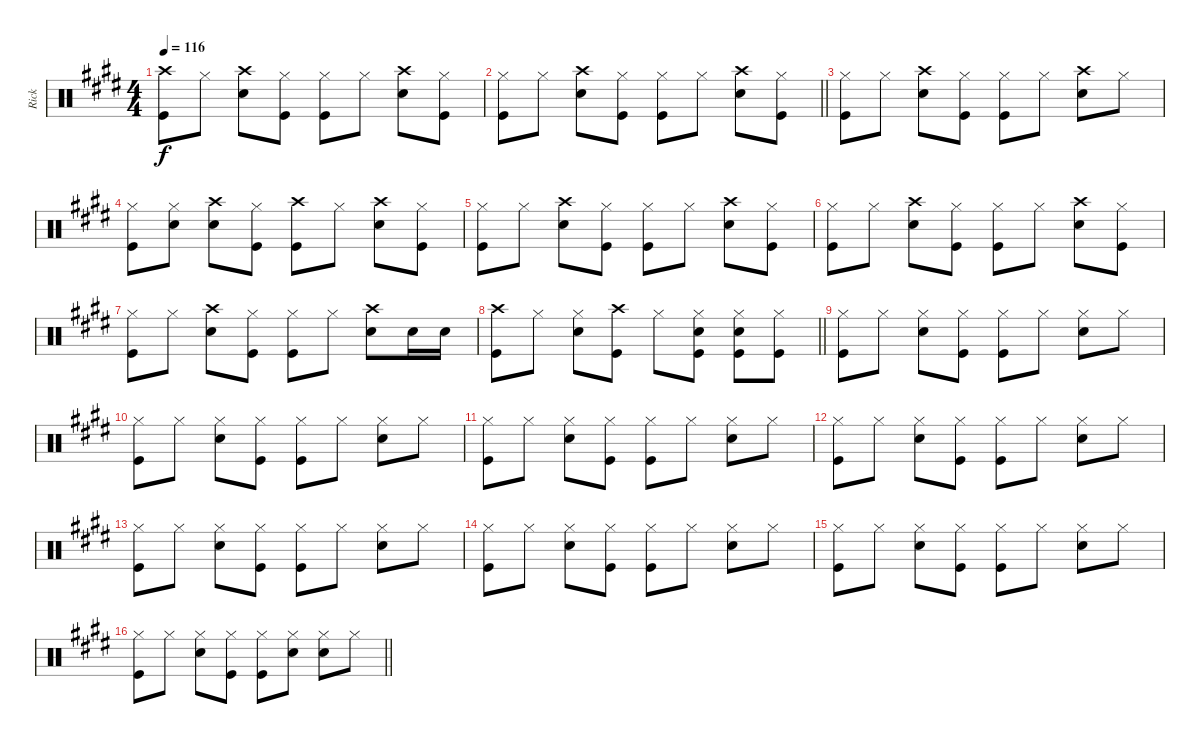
\track ("Rick" "Rick") {instrument percussion}
\staff {score}
\articulation defaults
\ts (4 4)
\tempo 116
\clef neutral
\ks e
("Crash high (hit)" "Kick (hit)").8{dy f} "Hi-Hat (closed)".8 ("Crash high (hit)" "Snare (hit) 2").8 ("Hi-Hat (closed)" "Kick (hit)").8 ("Hi-Hat (closed)" "Kick (hit)").8 "Hi-Hat (closed)".8 ("Crash high (hit)" "Snare (hit) 2").8 ("Hi-Hat (closed)" "Kick (hit)").8 |
\barLineRight lightlight
("Hi-Hat (closed)" "Kick (hit)").8 "Hi-Hat (closed)".8 ("Crash high (hit)" "Snare (hit) 2").8 ("Hi-Hat (closed)" "Kick (hit)").8 ("Hi-Hat (closed)" "Kick (hit)").8 "Hi-Hat (closed)".8 ("Crash high (hit)" "Snare (hit) 2").8 ("Hi-Hat (closed)" "Kick (hit)").8 |
("Hi-Hat (closed)" "Kick (hit)").8 "Hi-Hat (closed)".8 ("Crash high (hit)" "Snare (hit) 2").8 ("Hi-Hat (closed)" "Kick (hit)").8 ("Hi-Hat (closed)" "Kick (hit)").8 "Hi-Hat (closed)".8 ("Crash high (hit)" "Snare (hit) 2").8 "Hi-Hat (closed)".8 |
("Hi-Hat (closed)" "Kick (hit)").8 ("Hi-Hat (closed)" "Snare (hit) 2").8 ("Crash high (hit)" "Snare (hit) 2").8 ("Hi-Hat (closed)" "Kick (hit)").8 ("Crash high (hit)" "Kick (hit)").8 "Hi-Hat (closed)".8 ("Crash high (hit)" "Snare (hit) 2").8 ("Hi-Hat (closed)" "Kick (hit)").8 |
("Hi-Hat (closed)" "Kick (hit)").8 "Hi-Hat (closed)".8 ("Crash high (hit)" "Snare (hit) 2").8 ("Hi-Hat (closed)" "Kick (hit)").8 ("Hi-Hat (closed)" "Kick (hit)").8 "Hi-Hat (closed)".8 ("Crash high (hit)" "Snare (hit) 2").8 ("Hi-Hat (closed)" "Kick (hit)").8 |
("Hi-Hat (closed)" "Kick (hit)").8 "Hi-Hat (closed)".8 ("Crash high (hit)" "Snare (hit) 2").8 ("Hi-Hat (closed)" "Kick (hit)").8 ("Hi-Hat (closed)" "Kick (hit)").8 "Hi-Hat (closed)".8 ("Crash high (hit)" "Snare (hit) 2").8 ("Hi-Hat (closed)" "Kick (hit)").8 |
("Hi-Hat (closed)" "Kick (hit)").8 "Hi-Hat (closed)".8 ("Crash high (hit)" "Snare (hit) 2").8 ("Hi-Hat (closed)" "Kick (hit)").8 ("Hi-Hat (closed)" "Kick (hit)").8 "Hi-Hat (closed)".8 ("Crash high (hit)" "Snare (hit) 2").8 "Snare (hit) 2".16 "Snare (hit) 2".16 |
\barLineRight lightlight
("Crash high (hit)" "Kick (hit)").8 "Hi-Hat (closed)".8 ("Hi-Hat (closed)" "Snare (hit) 2").8 ("Crash high (hit)" "Kick (hit)").8 "Hi-Hat (closed)".8 ("Hi-Hat (closed)" "Snare (hit) 2" "Kick (hit)").8 ("Hi-Hat (closed)" "Snare (hit) 2" "Kick (hit)").8 ("Hi-Hat (closed)" "Kick (hit)").8 |
("Hi-Hat (closed)" "Kick (hit)").8 "Hi-Hat (closed)".8 ("Hi-Hat (closed)" "Snare (hit) 2").8 ("Hi-Hat (closed)" "Kick (hit)").8 ("Hi-Hat (closed)" "Kick (hit)").8 "Hi-Hat (closed)".8 ("Hi-Hat (closed)" "Snare (hit) 2").8 "Hi-Hat (closed)".8 |
("Hi-Hat (closed)" "Kick (hit)").8 "Hi-Hat (closed)".8 ("Hi-Hat (closed)" "Snare (hit) 2").8 ("Hi-Hat (closed)" "Kick (hit)").8 ("Hi-Hat (closed)" "Kick (hit)").8 "Hi-Hat (closed)".8 ("Hi-Hat (closed)" "Snare (hit) 2").8 "Hi-Hat (closed)".8 |
("Hi-Hat (closed)" "Kick (hit)").8 "Hi-Hat (closed)".8 ("Hi-Hat (closed)" "Snare (hit) 2").8 ("Hi-Hat (closed)" "Kick (hit)").8 ("Hi-Hat (closed)" "Kick (hit)").8 "Hi-Hat (closed)".8 ("Hi-Hat (closed)" "Snare (hit) 2").8 "Hi-Hat (closed)".8 |
("Hi-Hat (closed)" "Kick (hit)").8 "Hi-Hat (closed)".8 ("Hi-Hat (closed)" "Snare (hit) 2").8 ("Hi-Hat (closed)" "Kick (hit)").8 ("Hi-Hat (closed)" "Kick (hit)").8 "Hi-Hat (closed)".8 ("Hi-Hat (closed)" "Snare (hit) 2").8 "Hi-Hat (closed)".8 |
("Hi-Hat (closed)" "Kick (hit)").8 "Hi-Hat (closed)".8 ("Hi-Hat (closed)" "Snare (hit) 2").8 ("Hi-Hat (closed)" "Kick (hit)").8 ("Hi-Hat (closed)" "Kick (hit)").8 "Hi-Hat (closed)".8 ("Hi-Hat (closed)" "Snare (hit) 2").8 "Hi-Hat (closed)".8 |
("Hi-Hat (closed)" "Kick (hit)").8 "Hi-Hat (closed)".8 ("Hi-Hat (closed)" "Snare (hit) 2").8 ("Hi-Hat (closed)" "Kick (hit)").8 ("Hi-Hat (closed)" "Kick (hit)").8 "Hi-Hat (closed)".8 ("Hi-Hat (closed)" "Snare (hit) 2").8 "Hi-Hat (closed)".8 |
("Hi-Hat (closed)" "Kick (hit)").8 "Hi-Hat (closed)".8 ("Hi-Hat (closed)" "Snare (hit) 2").8 ("Hi-Hat (closed)" "Kick (hit)").8 ("Hi-Hat (closed)" "Kick (hit)").8 "Hi-Hat (closed)".8 ("Hi-Hat (closed)" "Snare (hit) 2").8 "Hi-Hat (closed)".8 |
\barLineRight lightlight
("Hi-Hat (closed)" "Kick (hit)").8 "Hi-Hat (closed)".8 ("Hi-Hat (closed)" "Snare (hit) 2").8 ("Hi-Hat (closed)" "Kick (hit)").8 ("Hi-Hat (closed)" "Kick (hit)").8 ("Hi-Hat (closed)" "Snare (hit) 2").8 ("Hi-Hat (closed)" "Snare (hit) 2").8 "Hi-Hat (closed)".8
